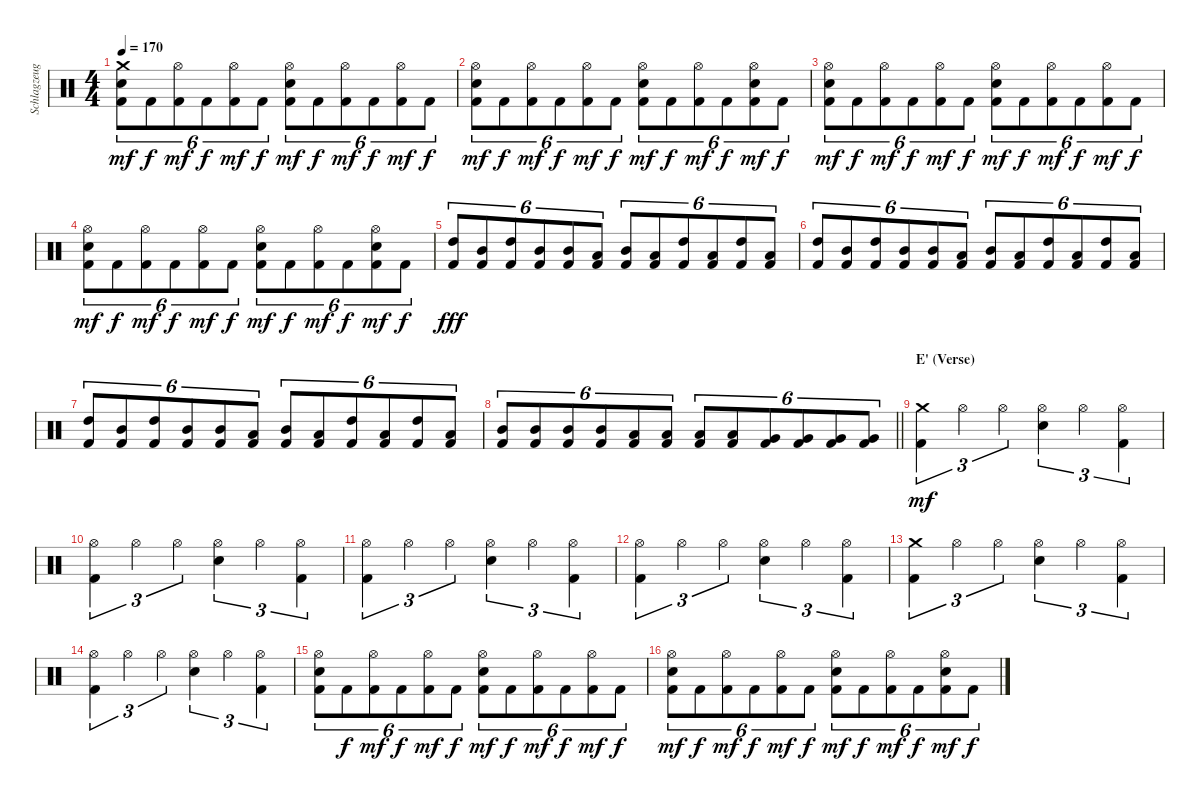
\track ("Schlagzeug" "Schlagzeug") {instrument percussion}
\staff {score}
\articulation defaults
\ts (4 4)
\tempo 170
\clef neutral
\ks c
("Crash medium (hit)" "Electric Snare (hit)" "Kick (hit) 2").8{tu (6 4) dy mf} "Kick (hit) 2".8{tu (6 4) dy f} ("Hi-Hat (open)" "Kick (hit) 2").8{tu (6 4) dy mf} "Kick (hit) 2".8{tu (6 4) dy f} ("Hi-Hat (open)" "Kick (hit) 2").8{tu (6 4) dy mf} "Kick (hit) 2".8{tu (6 4) dy f} ("Hi-Hat (open)" "Electric Snare (hit)" "Kick (hit) 2").8{tu (6 4) dy mf} "Kick (hit) 2".8{tu (6 4) dy f} ("Hi-Hat (open)" "Kick (hit) 2").8{tu (6 4) dy mf} "Kick (hit) 2".8{tu (6 4) dy f} ("Hi-Hat (open)" "Kick (hit) 2").8{tu (6 4) dy mf} "Kick (hit) 2".8{tu (6 4) dy f} |
("Hi-Hat (open)" "Electric Snare (hit)" "Kick (hit) 2").8{tu (6 4) dy mf} "Kick (hit) 2".8{tu (6 4) dy f} ("Hi-Hat (open)" "Kick (hit) 2").8{tu (6 4) dy mf} "Kick (hit) 2".8{tu (6 4) dy f} ("Hi-Hat (open)" "Kick (hit) 2").8{tu (6 4) dy mf} "Kick (hit) 2".8{tu (6 4) dy f} ("Hi-Hat (open)" "Electric Snare (hit)" "Kick (hit) 2").8{tu (6 4) dy mf} "Kick (hit) 2".8{tu (6 4) dy f} ("Hi-Hat (open)" "Kick (hit) 2").8{tu (6 4) dy mf} "Kick (hit) 2".8{tu (6 4) dy f} ("Hi-Hat (open)" "Electric Snare (hit)" "Kick (hit) 2").8{tu (6 4) dy mf} "Kick (hit) 2".8{tu (6 4) dy f} |
("Hi-Hat (open)" "Electric Snare (hit)" "Kick (hit) 2").8{tu (6 4) dy mf} "Kick (hit) 2".8{tu (6 4) dy f} ("Hi-Hat (open)" "Kick (hit) 2").8{tu (6 4) dy mf} "Kick (hit) 2".8{tu (6 4) dy f} ("Hi-Hat (open)" "Kick (hit) 2").8{tu (6 4) dy mf} "Kick (hit) 2".8{tu (6 4) dy f} ("Hi-Hat (open)" "Electric Snare (hit)" "Kick (hit) 2").8{tu (6 4) dy mf} "Kick (hit) 2".8{tu (6 4) dy f} ("Hi-Hat (open)" "Kick (hit) 2").8{tu (6 4) dy mf} "Kick (hit) 2".8{tu (6 4) dy f} ("Hi-Hat (open)" "Kick (hit) 2").8{tu (6 4) dy mf} "Kick (hit) 2".8{tu (6 4) dy f} |
("Hi-Hat (open)" "Electric Snare (hit)" "Kick (hit) 2").8{tu (6 4) dy mf} "Kick (hit) 2".8{tu (6 4) dy f} ("Hi-Hat (open)" "Kick (hit) 2").8{tu (6 4) dy mf} "Kick (hit) 2".8{tu (6 4) dy f} ("Hi-Hat (open)" "Kick (hit) 2").8{tu (6 4) dy mf} "Kick (hit) 2".8{tu (6 4) dy f} ("Hi-Hat (open)" "Electric Snare (hit)" "Kick (hit) 2").8{tu (6 4) dy mf} "Kick (hit) 2".8{tu (6 4) dy f} ("Hi-Hat (open)" "Kick (hit) 2").8{tu (6 4) dy mf} "Kick (hit) 2".8{tu (6 4) dy f} ("Hi-Hat (open)" "Electric Snare (hit)" "Kick (hit) 2").8{tu (6 4) dy mf} "Kick (hit) 2".8{tu (6 4) dy f} |
("High Tom (hit)" "Kick (hit) 2").8{tu (6 4) dy fff} ("Mid Tom (hit)" "Kick (hit) 2").8{tu (6 4)} ("High Tom (hit)" "Kick (hit) 2").8{tu (6 4)} ("Mid Tom (hit)" "Kick (hit) 2").8{tu (6 4)} ("Mid Tom (hit)" "Kick (hit) 2").8{tu (6 4)} ("Low Tom (hit)" "Kick (hit) 2").8{tu (6 4)} ("Mid Tom (hit)" "Kick (hit) 2").8{tu (6 4)} ("Low Tom (hit)" "Kick (hit) 2").8{tu (6 4)} ("High Tom (hit)" "Kick (hit) 2").8{tu (6 4)} ("Low Tom (hit)" "Kick (hit) 2").8{tu (6 4)} ("High Tom (hit)" "Kick (hit) 2").8{tu (6 4)} ("Low Tom (hit)" "Kick (hit) 2").8{tu (6 4)} |
("High Tom (hit)" "Kick (hit) 2").8{tu (6 4)} ("Mid Tom (hit)" "Kick (hit) 2").8{tu (6 4)} ("High Tom (hit)" "Kick (hit) 2").8{tu (6 4)} ("Mid Tom (hit)" "Kick (hit) 2").8{tu (6 4)} ("Mid Tom (hit)" "Kick (hit) 2").8{tu (6 4)} ("Low Tom (hit)" "Kick (hit) 2").8{tu (6 4)} ("Mid Tom (hit)" "Kick (hit) 2").8{tu (6 4)} ("Low Tom (hit)" "Kick (hit) 2").8{tu (6 4)} ("High Tom (hit)" "Kick (hit) 2").8{tu (6 4)} ("Low Tom (hit)" "Kick (hit) 2").8{tu (6 4)} ("High Tom (hit)" "Kick (hit) 2").8{tu (6 4)} ("Low Tom (hit)" "Kick (hit) 2").8{tu (6 4)} |
("High Tom (hit)" "Kick (hit) 2").8{tu (6 4)} ("Mid Tom (hit)" "Kick (hit) 2").8{tu (6 4)} ("High Tom (hit)" "Kick (hit) 2").8{tu (6 4)} ("Mid Tom (hit)" "Kick (hit) 2").8{tu (6 4)} ("Mid Tom (hit)" "Kick (hit) 2").8{tu (6 4)} ("Low Tom (hit)" "Kick (hit) 2").8{tu (6 4)} ("Mid Tom (hit)" "Kick (hit) 2").8{tu (6 4)} ("Low Tom (hit)" "Kick (hit) 2").8{tu (6 4)} ("High Tom (hit)" "Kick (hit) 2").8{tu (6 4)} ("Low Tom (hit)" "Kick (hit) 2").8{tu (6 4)} ("High Tom (hit)" "Kick (hit) 2").8{tu (6 4)} ("Low Tom (hit)" "Kick (hit) 2").8{tu (6 4)} |
\barLineRight lightlight
("Mid Tom (hit)" "Kick (hit) 2").8{tu (6 4)} ("Mid Tom (hit)" "Kick (hit) 2").8{tu (6 4)} ("Mid Tom (hit)" "Kick (hit) 2").8{tu (6 4)} ("Mid Tom (hit)" "Kick (hit) 2").8{tu (6 4)} ("Low Tom (hit)" "Kick (hit) 2").8{tu (6 4)} ("Low Tom (hit)" "Kick (hit) 2").8{tu (6 4)} ("Low Tom (hit)" "Kick (hit) 2").8{tu (6 4)} ("Low Tom (hit)" "Kick (hit) 2").8{tu (6 4)} ("Very Low Tom (hit)" "Kick (hit) 2").8{tu (6 4)} ("Very Low Tom (hit)" "Kick (hit) 2").8{tu (6 4)} ("Very Low Tom (hit)" "Kick (hit) 2").8{tu (6 4)} ("Very Low Tom (hit)" "Kick (hit) 2").8{tu (6 4)} |
\section ("" "E' (Verse)")
("Crash medium (hit)" "Kick (hit) 2").4{tu (3 2) dy mf} "Hi-Hat (open)".4{tu (3 2)} "Hi-Hat (open)".4{tu (3 2)} ("Hi-Hat (open)" "Electric Snare (hit)").4{tu (3 2)} "Hi-Hat (open)".4{tu (3 2)} ("Hi-Hat (open)" "Kick (hit) 2").4{tu (3 2)} |
("Hi-Hat (open)" "Kick (hit) 2").4{tu (3 2)} "Hi-Hat (open)".4{tu (3 2)} "Hi-Hat (open)".4{tu (3 2)} ("Hi-Hat (open)" "Electric Snare (hit)").4{tu (3 2)} "Hi-Hat (open)".4{tu (3 2)} ("Hi-Hat (open)" "Kick (hit) 2").4{tu (3 2)} |
("Hi-Hat (open)" "Kick (hit) 2").4{tu (3 2)} "Hi-Hat (open)".4{tu (3 2)} "Hi-Hat (open)".4{tu (3 2)} ("Hi-Hat (open)" "Electric Snare (hit)").4{tu (3 2)} "Hi-Hat (open)".4{tu (3 2)} ("Hi-Hat (open)" "Kick (hit) 2").4{tu (3 2)} |
("Hi-Hat (open)" "Kick (hit) 2").4{tu (3 2)} "Hi-Hat (open)".4{tu (3 2)} "Hi-Hat (open)".4{tu (3 2)} ("Hi-Hat (open)" "Electric Snare (hit)").4{tu (3 2)} "Hi-Hat (open)".4{tu (3 2)} ("Hi-Hat (open)" "Kick (hit) 2").4{tu (3 2)} |
("Crash medium (hit)" "Kick (hit) 2").4{tu (3 2)} "Hi-Hat (open)".4{tu (3 2)} "Hi-Hat (open)".4{tu (3 2)} ("Hi-Hat (open)" "Electric Snare (hit)").4{tu (3 2)} "Hi-Hat (open)".4{tu (3 2)} ("Hi-Hat (open)" "Kick (hit) 2").4{tu (3 2)} |
("Hi-Hat (open)" "Kick (hit) 2").4{tu (3 2)} "Hi-Hat (open)".4{tu (3 2)} "Hi-Hat (open)".4{tu (3 2)} ("Hi-Hat (open)" "Electric Snare (hit)").4{tu (3 2)} "Hi-Hat (open)".4{tu (3 2)} ("Hi-Hat (open)" "Kick (hit) 2").4{tu (3 2)} |
("Hi-Hat (open)" "Electric Snare (hit)" "Kick (hit) 2").8{tu (6 4)} "Kick (hit) 2".8{tu (6 4) dy f} ("Hi-Hat (open)" "Kick (hit) 2").8{tu (6 4) dy mf} "Kick (hit) 2".8{tu (6 4) dy f} ("Hi-Hat (open)" "Kick (hit) 2").8{tu (6 4) dy mf} "Kick (hit) 2".8{tu (6 4) dy f} ("Hi-Hat (open)" "Electric Snare (hit)" "Kick (hit) 2").8{tu (6 4) dy mf} "Kick (hit) 2".8{tu (6 4) dy f} ("Hi-Hat (open)" "Kick (hit) 2").8{tu (6 4) dy mf} "Kick (hit) 2".8{tu (6 4) dy f} ("Hi-Hat (open)" "Kick (hit) 2").8{tu (6 4) dy mf} "Kick (hit) 2".8{tu (6 4) dy f} |
("Hi-Hat (open)" "Electric Snare (hit)" "Kick (hit) 2").8{tu (6 4) dy mf} "Kick (hit) 2".8{tu (6 4) dy f} ("Hi-Hat (open)" "Kick (hit) 2").8{tu (6 4) dy mf} "Kick (hit) 2".8{tu (6 4) dy f} ("Hi-Hat (open)" "Kick (hit) 2").8{tu (6 4) dy mf} "Kick (hit) 2".8{tu (6 4) dy f} ("Hi-Hat (open)" "Electric Snare (hit)" "Kick (hit) 2").8{tu (6 4) dy mf} "Kick (hit) 2".8{tu (6 4) dy f} ("Hi-Hat (open)" "Kick (hit) 2").8{tu (6 4) dy mf} "Kick (hit) 2".8{tu (6 4) dy f} ("Hi-Hat (open)" "Electric Snare (hit)" "Kick (hit) 2").8{tu (6 4) dy mf} "Kick (hit) 2".8{tu (6 4) dy f}
